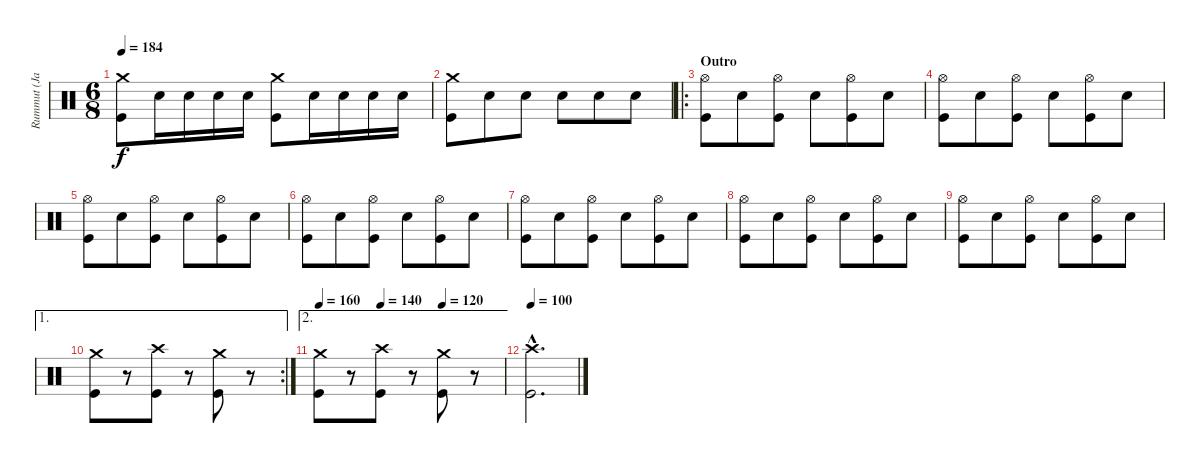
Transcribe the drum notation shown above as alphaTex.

\track ("Rummut (Janne)" "Rummut (Ja") {instrument percussion}
\staff {score}
\articulation defaults
\ts (6 8)
\tempo 184
\clef neutral
\ks c
("Crash medium (hit)" "Kick (hit)").8{dy f} "Snare (hit) 2".16 "Snare (hit) 2".16 "Snare (hit) 2".16 "Snare (hit) 2".16 ("Crash medium (hit)" "Kick (hit)").8 "Snare (hit) 2".16 "Snare (hit) 2".16 "Snare (hit) 2".16 "Snare (hit) 2".16 |
("Crash medium (hit)" "Kick (hit)").8 "Snare (hit) 2".8 "Snare (hit) 2".8 "Snare (hit) 2".8 "Snare (hit) 2".8 "Snare (hit) 2".8 |
\ro
\section ("" "Outro")
("Hi-Hat (open)" "Kick (hit)").8 "Snare (hit) 2".8 ("Hi-Hat (open)" "Kick (hit)").8 "Snare (hit) 2".8 ("Hi-Hat (open)" "Kick (hit)").8 "Snare (hit) 2".8 |
("Hi-Hat (open)" "Kick (hit)").8 "Snare (hit) 2".8 ("Hi-Hat (open)" "Kick (hit)").8 "Snare (hit) 2".8 ("Hi-Hat (open)" "Kick (hit)").8 "Snare (hit) 2".8 |
("Hi-Hat (open)" "Kick (hit)").8 "Snare (hit) 2".8 ("Hi-Hat (open)" "Kick (hit)").8 "Snare (hit) 2".8 ("Hi-Hat (open)" "Kick (hit)").8 "Snare (hit) 2".8 |
("Hi-Hat (open)" "Kick (hit)").8 "Snare (hit) 2".8 ("Hi-Hat (open)" "Kick (hit)").8 "Snare (hit) 2".8 ("Hi-Hat (open)" "Kick (hit)").8 "Snare (hit) 2".8 |
("Hi-Hat (open)" "Kick (hit)").8 "Snare (hit) 2".8 ("Hi-Hat (open)" "Kick (hit)").8 "Snare (hit) 2".8 ("Hi-Hat (open)" "Kick (hit)").8 "Snare (hit) 2".8 |
("Hi-Hat (open)" "Kick (hit)").8 "Snare (hit) 2".8 ("Hi-Hat (open)" "Kick (hit)").8 "Snare (hit) 2".8 ("Hi-Hat (open)" "Kick (hit)").8 "Snare (hit) 2".8 |
("Hi-Hat (open)" "Kick (hit)").8 "Snare (hit) 2".8 ("Hi-Hat (open)" "Kick (hit)").8 "Snare (hit) 2".8 ("Hi-Hat (open)" "Kick (hit)").8 "Snare (hit) 2".8 |
\ae 1
\rc 2
("Crash medium (hit)" "Kick (hit)").8 r.8 ("Crash high (hit)" "Kick (hit)").8 r.8 ("Crash medium (hit)" "Kick (hit)").8 r.8 |
\ae 2
\tempo 160
\tempo (140 0.3333333333333333)
\tempo (120 0.6666666666666666)
("Crash medium (hit)" "Kick (hit)").8 r.8 ("Crash high (hit)" "Kick (hit)").8 r.8 ("Crash medium (hit)" "Kick (hit)").8 r.8 |
\tempo 100
("Crash high (hit)"{hac} "Kick (hit)"{hac}).2{d}
